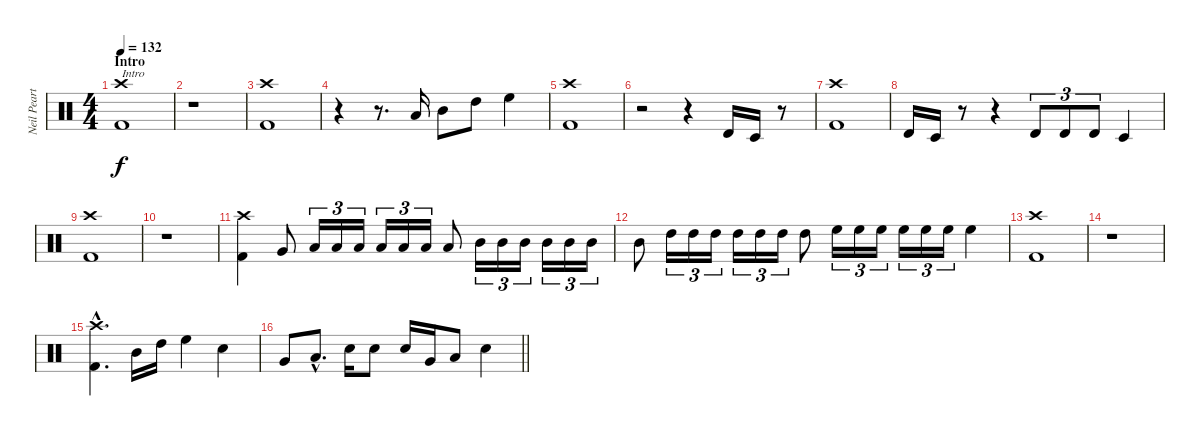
\track ("Neil Peart" "Neil Peart") {instrument percussion}
\staff {score}
\articulation defaults
\ts (4 4)
\section ("" "Intro")
\tempo 132
\clef neutral
\ks c
("Crash high (hit)" "Kick (hit) 2").1{txt "Intro" dy f volume 16} |
r.1 |
("Crash high (hit)" "Kick (hit) 2").1 |
r.4 r.8{d} "Low Tom (hit)".16 "Mid Tom (hit)".8 "High Tom (hit)".8 "High Floor Tom (hit)".4 |
("Crash high (hit)" "Kick (hit) 2").1 |
r.2 r.4 "Timbale high (hit)".16 "Timbale low (hit)".16 r.8 |
("Crash high (hit)" "Kick (hit) 2").1 |
"Timbale high (hit)".16 "Timbale low (hit)".16 r.8 r.4 "Timbale high (hit)".8{tu (3 2)} "Timbale high (hit)".8{tu (3 2)} "Timbale high (hit)".8{tu (3 2)} "Timbale low (hit)".4 |
("Crash high (hit)" "Kick (hit) 2").1 |
r.1 |
("Crash high (hit)" "Kick (hit) 2").4 "Very Low Tom (hit)".8 "Low Tom (hit)".16{tu (3 2)} "Low Tom (hit)".16{tu (3 2)} "Low Tom (hit)".16{tu (3 2)} "Low Tom (hit)".16{tu (3 2)} "Low Tom (hit)".16{tu (3 2)} "Low Tom (hit)".16{tu (3 2)} "Low Tom (hit)".8 "Mid Tom (hit)".16{tu (3 2)} "Mid Tom (hit)".16{tu (3 2)} "Mid Tom (hit)".16{tu (3 2)} "Mid Tom (hit)".16{tu (3 2)} "Mid Tom (hit)".16{tu (3 2)} "Mid Tom (hit)".16{tu (3 2)} |
"Mid Tom (hit)".8 "High Tom (hit)".16{tu (3 2)} "High Tom (hit)".16{tu (3 2)} "High Tom (hit)".16{tu (3 2)} "High Tom (hit)".16{tu (3 2)} "High Tom (hit)".16{tu (3 2)} "High Tom (hit)".16{tu (3 2)} "High Tom (hit)".8 "High Floor Tom (hit)".16{tu (3 2)} "High Floor Tom (hit)".16{tu (3 2)} "High Floor Tom (hit)".16{tu (3 2)} "High Floor Tom (hit)".16{tu (3 2)} "High Floor Tom (hit)".16{tu (3 2)} "High Floor Tom (hit)".16{tu (3 2)} "High Floor Tom (hit)".4 |
("Crash high (hit)" "Kick (hit) 2").1 |
r.1 |
("Crash high (hit)"{hac} "Kick (hit) 2"{hac}).4{d} "Mid Tom (hit)".16 "High Tom (hit)".16 "High Floor Tom (hit)".4 "Electric Snare (hit)".4 |
\barLineRight lightlight "Very Low Tom (hit)".8 "Low Tom (hit)"{hac}.8{d} "Electric Snare (hit)".16 "Electric Snare (hit)".8 "Electric Snare (hit)".16 "Very Low Tom (hit)".16 "Low Tom (hit)".8 "Electric Snare (hit)".4
